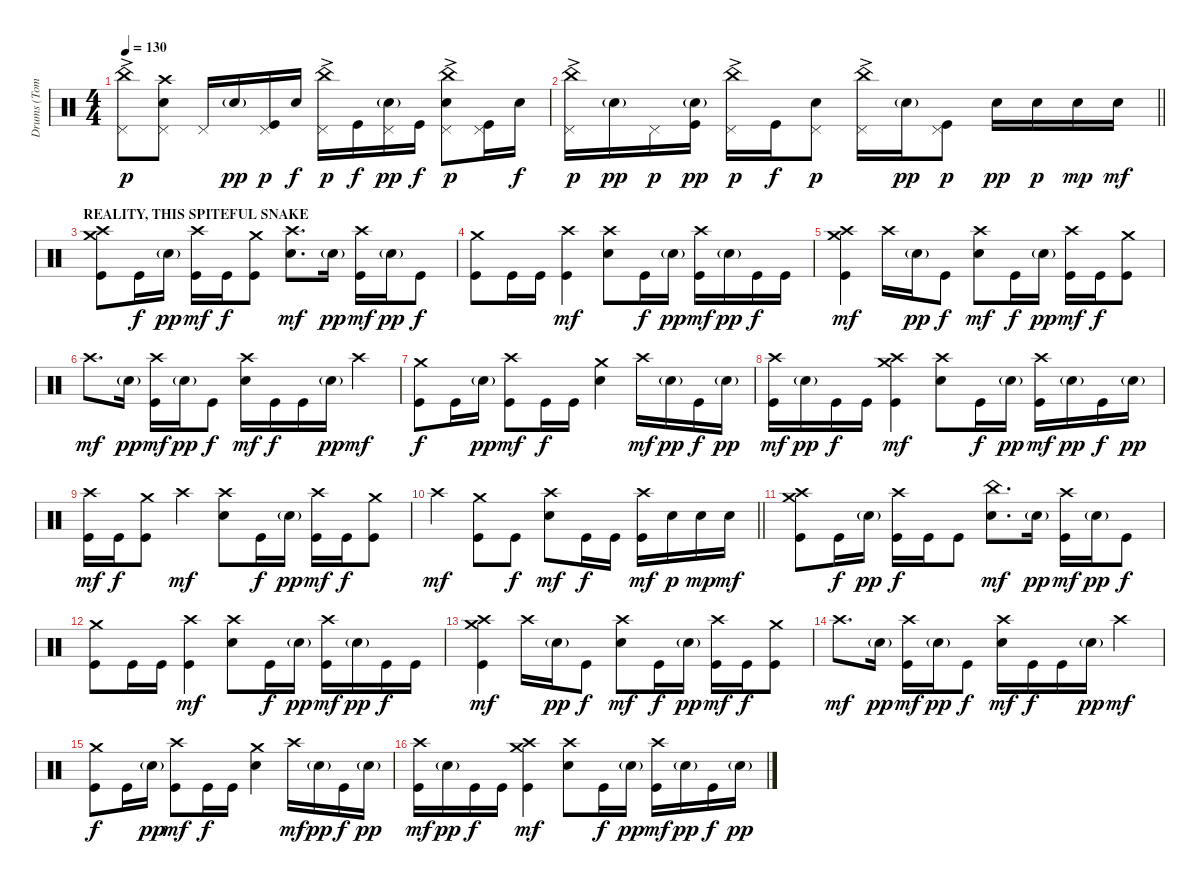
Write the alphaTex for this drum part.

\track ("Drums (Tomas Haake)" "Drums (Tom") {instrument percussion}
\staff {score}
\articulation defaults
\ts (4 4)
\tempo 130
\clef neutral
\ks c
("China (hit)"{ac} "Pedal Hi-Hat (hit)").8{dy p} ("Crash high (hit)" "Pedal Hi-Hat (hit)" "Electric Snare (hit)").8 "Pedal Hi-Hat (hit)".16 "Electric Snare (hit)"{g}.16{dy pp} ("Pedal Hi-Hat (hit)" "Kick (hit)").16{dy p} "Electric Snare (hit)".16{dy f} ("China (hit)"{ac} "Pedal Hi-Hat (hit)").16{dy p} "Kick (hit)".16{dy f} ("Pedal Hi-Hat (hit)" "Electric Snare (hit)"{g}).16{dy pp} "Kick (hit)".16{dy f} ("China (hit)"{ac} "Pedal Hi-Hat (hit)" "Electric Snare (hit)").8{dy p} ("Pedal Hi-Hat (hit)" "Kick (hit)").16 "Electric Snare (hit)".16{dy f} |
\barLineRight lightlight
("China (hit)"{ac} "Pedal Hi-Hat (hit)").16{dy p} "Electric Snare (hit)"{g}.16{dy pp} "Pedal Hi-Hat (hit)".16{dy p} ("Electric Snare (hit)"{g} "Kick (hit)").16{dy pp} ("China (hit)"{ac} "Pedal Hi-Hat (hit)").16{dy p} "Kick (hit)".16{dy f} ("Pedal Hi-Hat (hit)" "Electric Snare (hit)").8{dy p} ("China (hit)"{ac} "Pedal Hi-Hat (hit)").16 "Electric Snare (hit)"{g}.16{dy pp} ("Pedal Hi-Hat (hit)" "Kick (hit)").8{dy p} "Electric Snare (hit)".16{dy pp} "Electric Snare (hit)".16{dy p} "Electric Snare (hit)".16{dy mp} "Electric Snare (hit)".16{dy mf} |
\section ("" "REALITY, THIS SPITEFUL SNAKE")
("Crash high (hit)" "Crash medium (hit)" "Kick (hit)").8 "Kick (hit)".16{dy f} "Electric Snare (hit)"{g}.16{dy pp} ("Crash high (hit)" "Kick (hit)").16{dy mf} "Kick (hit)".16{dy f} ("Crash medium (hit)" "Kick (hit)").8 ("Crash high (hit)" "Electric Snare (hit)").8{d dy mf} "Electric Snare (hit)"{g}.16{dy pp} ("Crash high (hit)" "Kick (hit)").16{dy mf} "Electric Snare (hit)"{g}.16{dy pp} "Kick (hit)".8{dy f} |
("Crash medium (hit)" "Kick (hit)").8 "Kick (hit)".16 "Kick (hit)".16 ("Crash high (hit)" "Kick (hit)").4{dy mf} ("Crash high (hit)" "Electric Snare (hit)").8 "Kick (hit)".16{dy f} "Electric Snare (hit)"{g}.16{dy pp} ("Crash high (hit)" "Kick (hit)").16{dy mf} "Electric Snare (hit)"{g}.16{dy pp} "Kick (hit)".16{dy f} "Kick (hit)".16 |
("Crash high (hit)" "Crash medium (hit)" "Kick (hit)").4{dy mf} "Crash high (hit)".16 "Electric Snare (hit)"{g}.16{dy pp} "Kick (hit)".8{dy f} ("Crash high (hit)" "Electric Snare (hit)").8{dy mf} "Kick (hit)".16{dy f} "Electric Snare (hit)"{g}.16{dy pp} ("Crash high (hit)" "Kick (hit)").16{dy mf} "Kick (hit)".16{dy f} ("Crash medium (hit)" "Kick (hit)").8 |
"Crash high (hit)".8{d dy mf} "Electric Snare (hit)"{g}.16{dy pp} ("Crash high (hit)" "Kick (hit)").16{dy mf} "Electric Snare (hit)"{g}.16{dy pp} "Kick (hit)".8{dy f} ("Crash high (hit)" "Electric Snare (hit)").16{dy mf} "Kick (hit)".16{dy f} "Kick (hit)".16 "Electric Snare (hit)"{g}.16{dy pp} "Crash high (hit)".4{dy mf} |
("Crash medium (hit)" "Kick (hit)").8{dy f} "Kick (hit)".16 "Electric Snare (hit)"{g}.16{dy pp} ("Crash high (hit)" "Kick (hit)").8{dy mf} "Kick (hit)".16{dy f} "Kick (hit)".16 ("Crash medium (hit)" "Electric Snare (hit)").4 "Crash high (hit)".16{dy mf} "Electric Snare (hit)"{g}.16{dy pp} "Kick (hit)".16{dy f} "Electric Snare (hit)"{g}.16{dy pp} |
("Crash high (hit)" "Kick (hit)").16{dy mf} "Electric Snare (hit)"{g}.16{dy pp} "Kick (hit)".16{dy f} "Kick (hit)".16 ("Crash high (hit)" "Crash medium (hit)" "Kick (hit)").4{dy mf} ("Crash high (hit)" "Electric Snare (hit)").8 "Kick (hit)".16{dy f} "Electric Snare (hit)"{g}.16{dy pp} ("Crash high (hit)" "Kick (hit)").16{dy mf} "Electric Snare (hit)"{g}.16{dy pp} "Kick (hit)".16{dy f} "Electric Snare (hit)"{g}.16{dy pp} |
("Crash high (hit)" "Kick (hit)").16{dy mf} "Kick (hit)".16{dy f} ("Crash medium (hit)" "Kick (hit)").8 "Crash high (hit)".4{dy mf} ("Crash high (hit)" "Electric Snare (hit)").8 "Kick (hit)".16{dy f} "Electric Snare (hit)"{g}.16{dy pp} ("Crash high (hit)" "Kick (hit)").16{dy mf} "Kick (hit)".16{dy f} ("Crash medium (hit)" "Kick (hit)").8 |
\barLineRight lightlight "Crash high (hit)".4{dy mf}
("Crash medium (hit)" "Kick (hit)").8 "Kick (hit)".8{dy f} ("Crash high (hit)" "Electric Snare (hit)").8{dy mf} "Kick (hit)".16{dy f} "Kick (hit)".16 ("Crash high (hit)" "Kick (hit)").16{dy mf} "Electric Snare (hit)".16{dy p} "Electric Snare (hit)".16{dy mp} "Electric Snare (hit)".16{dy mf} |
("Crash high (hit)" "Crash medium (hit)" "Kick (hit)").8 "Kick (hit)".16{dy f} "Electric Snare (hit)"{g}.16{dy pp} ("Crash high (hit)" "Kick (hit)").16{dy f} "Kick (hit)".16 "Kick (hit)".8 ("China (hit)" "Electric Snare (hit)").8{d dy mf} "Electric Snare (hit)"{g}.16{dy pp} ("Crash high (hit)" "Kick (hit)").16{dy mf} "Electric Snare (hit)"{g}.16{dy pp} "Kick (hit)".8{dy f} |
("Crash medium (hit)" "Kick (hit)").8 "Kick (hit)".16 "Kick (hit)".16 ("Crash high (hit)" "Kick (hit)").4{dy mf} ("Crash high (hit)" "Electric Snare (hit)").8 "Kick (hit)".16{dy f} "Electric Snare (hit)"{g}.16{dy pp} ("Crash high (hit)" "Kick (hit)").16{dy mf} "Electric Snare (hit)"{g}.16{dy pp} "Kick (hit)".16{dy f} "Kick (hit)".16 |
("Crash high (hit)" "Crash medium (hit)" "Kick (hit)").4{dy mf} "Crash high (hit)".16 "Electric Snare (hit)"{g}.16{dy pp} "Kick (hit)".8{dy f} ("Crash high (hit)" "Electric Snare (hit)").8{dy mf} "Kick (hit)".16{dy f} "Electric Snare (hit)"{g}.16{dy pp} ("Crash high (hit)" "Kick (hit)").16{dy mf} "Kick (hit)".16{dy f} ("Crash medium (hit)" "Kick (hit)").8 |
"Crash high (hit)".8{d dy mf} "Electric Snare (hit)"{g}.16{dy pp} ("Crash high (hit)" "Kick (hit)").16{dy mf} "Electric Snare (hit)"{g}.16{dy pp} "Kick (hit)".8{dy f} ("Crash high (hit)" "Electric Snare (hit)").16{dy mf} "Kick (hit)".16{dy f} "Kick (hit)".16 "Electric Snare (hit)"{g}.16{dy pp} "Crash high (hit)".4{dy mf} |
("Crash medium (hit)" "Kick (hit)").8{dy f} "Kick (hit)".16 "Electric Snare (hit)"{g}.16{dy pp} ("Crash high (hit)" "Kick (hit)").8{dy mf} "Kick (hit)".16{dy f} "Kick (hit)".16 ("Crash medium (hit)" "Electric Snare (hit)").4 "Crash high (hit)".16{dy mf} "Electric Snare (hit)"{g}.16{dy pp} "Kick (hit)".16{dy f} "Electric Snare (hit)"{g}.16{dy pp} |
("Crash high (hit)" "Kick (hit)").16{dy mf} "Electric Snare (hit)"{g}.16{dy pp} "Kick (hit)".16{dy f} "Kick (hit)".16 ("Crash high (hit)" "Crash medium (hit)" "Kick (hit)").4{dy mf} ("Crash high (hit)" "Electric Snare (hit)").8 "Kick (hit)".16{dy f} "Electric Snare (hit)"{g}.16{dy pp} ("Crash high (hit)" "Kick (hit)").16{dy mf} "Electric Snare (hit)"{g}.16{dy pp} "Kick (hit)".16{dy f} "Electric Snare (hit)"{g}.16{dy pp}
